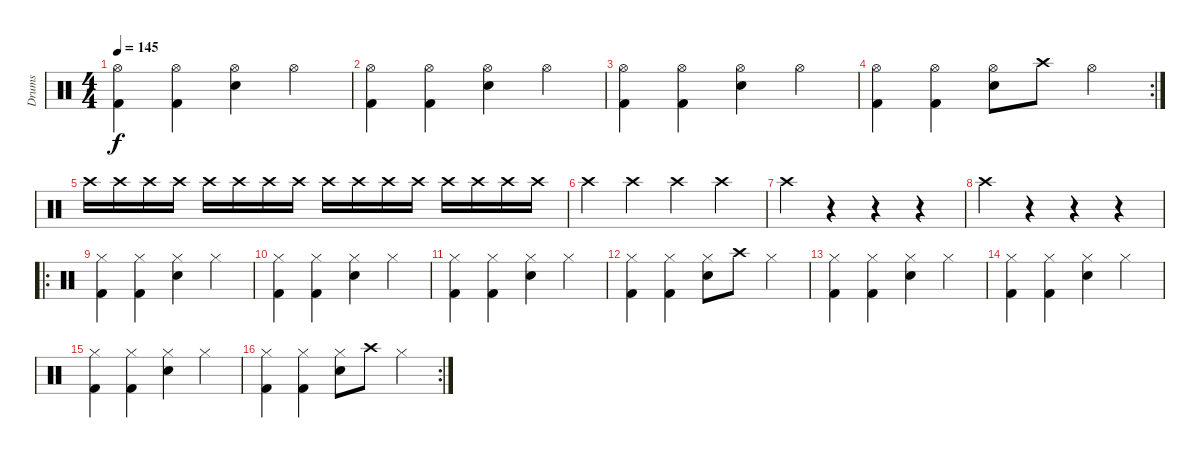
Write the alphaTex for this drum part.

\track ("Drums" "Drums") {instrument percussion}
\staff {score}
\articulation defaults
\ts (4 4)
\tempo 145
\clef neutral
\ks c
("Hi-Hat (open)" "Kick (hit) 2").4{dy f} ("Hi-Hat (open)" "Kick (hit) 2").4 ("Hi-Hat (open)" "Electric Snare (hit)").4 "Hi-Hat (open)".4 |
("Hi-Hat (open)" "Kick (hit) 2").4 ("Hi-Hat (open)" "Kick (hit) 2").4 ("Hi-Hat (open)" "Electric Snare (hit)").4 "Hi-Hat (open)".4 |
("Hi-Hat (open)" "Kick (hit) 2").4 ("Hi-Hat (open)" "Kick (hit) 2").4 ("Hi-Hat (open)" "Electric Snare (hit)").4 "Hi-Hat (open)".4 |
\rc 2
("Hi-Hat (open)" "Kick (hit) 2").4 ("Hi-Hat (open)" "Kick (hit) 2").4 ("Hi-Hat (open)" "Electric Snare (hit)").8 "Crash high (hit)".8 "Hi-Hat (open)".4 |
"Crash high (hit)".16 "Crash high (hit)".16 "Crash high (hit)".16 "Crash high (hit)".16 "Crash high (hit)".16 "Crash high (hit)".16 "Crash high (hit)".16 "Crash high (hit)".16 "Crash high (hit)".16 "Crash high (hit)".16 "Crash high (hit)".16 "Crash high (hit)".16 "Crash high (hit)".16 "Crash high (hit)".16 "Crash high (hit)".16 "Crash high (hit)".16 |
"Crash high (hit)".4 "Crash high (hit)".4 "Crash high (hit)".4 "Crash high (hit)".4 |
"Crash high (hit)".4 r.4 r.4 r.4 |
"Crash high (hit)".4 r.4 r.4 r.4 |
\ro
("Hi-Hat (closed)" "Kick (hit) 2").4 ("Hi-Hat (closed)" "Kick (hit) 2").4 ("Hi-Hat (closed)" "Electric Snare (hit)").4 "Hi-Hat (closed)".4 |
("Hi-Hat (closed)" "Kick (hit) 2").4 ("Hi-Hat (closed)" "Kick (hit) 2").4 ("Hi-Hat (closed)" "Electric Snare (hit)").4 "Hi-Hat (closed)".4 |
("Hi-Hat (closed)" "Kick (hit) 2").4 ("Hi-Hat (closed)" "Kick (hit) 2").4 ("Hi-Hat (closed)" "Electric Snare (hit)").4 "Hi-Hat (closed)".4 |
("Hi-Hat (closed)" "Kick (hit) 2").4 ("Hi-Hat (closed)" "Kick (hit) 2").4 ("Hi-Hat (closed)" "Electric Snare (hit)").8 "Crash high (hit)".8 "Hi-Hat (closed)".4 |
("Hi-Hat (closed)" "Kick (hit) 2").4 ("Hi-Hat (closed)" "Kick (hit) 2").4 ("Hi-Hat (closed)" "Electric Snare (hit)").4 "Hi-Hat (closed)".4 |
("Hi-Hat (closed)" "Kick (hit) 2").4 ("Hi-Hat (closed)" "Kick (hit) 2").4 ("Hi-Hat (closed)" "Electric Snare (hit)").4 "Hi-Hat (closed)".4 |
("Hi-Hat (closed)" "Kick (hit) 2").4 ("Hi-Hat (closed)" "Kick (hit) 2").4 ("Hi-Hat (closed)" "Electric Snare (hit)").4 "Hi-Hat (closed)".4 |
\rc 2
("Hi-Hat (closed)" "Kick (hit) 2").4 ("Hi-Hat (closed)" "Kick (hit) 2").4 ("Hi-Hat (closed)" "Electric Snare (hit)").8 "Crash high (hit)".8 "Hi-Hat (closed)".4
